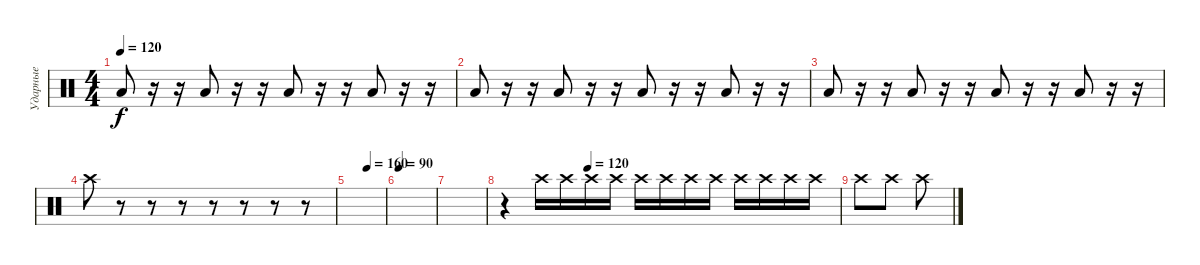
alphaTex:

\track ("Ударные" "Ударные") {instrument percussion}
\staff {score}
\articulation defaults
\ts (4 4)
\tempo 120
\clef neutral
\ks c "Low Floor Tom (hit)".8{dy f}
r.16 r.16 "Low Floor Tom (hit)".8 r.16 r.16 "Low Floor Tom (hit)".8 r.16 r.16 "Low Floor Tom (hit)".8 r.16 r.16 |
"Low Floor Tom (hit)".8 r.16 r.16 "Low Floor Tom (hit)".8 r.16 r.16 "Low Floor Tom (hit)".8 r.16 r.16 "Low Floor Tom (hit)".8 r.16 r.16 |
"Low Floor Tom (hit)".8 r.16 r.16 "Low Floor Tom (hit)".8 r.16 r.16 "Low Floor Tom (hit)".8 r.16 r.16 "Low Floor Tom (hit)".8 r.16 r.16 |
"Crash high (hit)".8 r.8 r.8 r.8 r.8 r.8 r.8 r.8 |
\tempo (160 0.5)
|
\tempo 90
|
|
\tempo (120 0.25)
r.4 "Crash high (hit)".16 "Crash high (hit)".16 "Crash high (hit)".16 "Crash high (hit)".16 "Crash high (hit)".16 "Crash high (hit)".16 "Crash high (hit)".16 "Crash high (hit)".16 "Crash high (hit)".16 "Crash high (hit)".16 "Crash high (hit)".16 "Crash high (hit)".16 |
"Crash high (hit)".8 "Crash high (hit)".8 "Crash high (hit)".8
